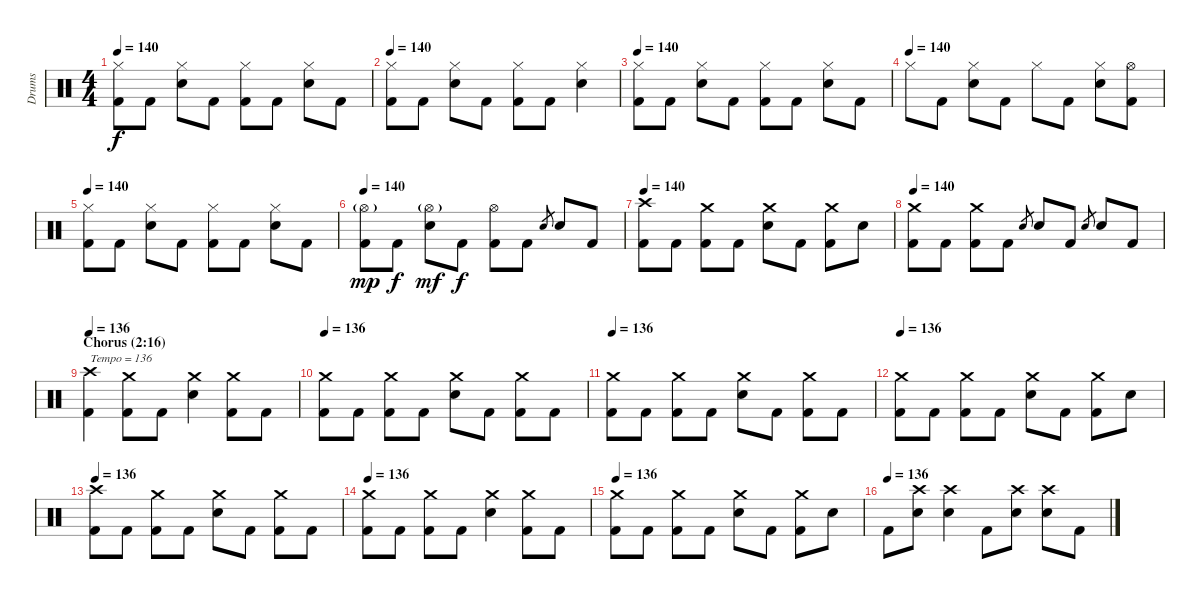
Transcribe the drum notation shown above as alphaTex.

\track ("Drums" "Drums") {instrument percussion}
\staff {score}
\articulation defaults
\ts (4 4)
\tempo 140
\clef neutral
\ks c
("Hi-Hat (closed)" "Kick (hit) 2").8{dy f} "Kick (hit) 2".8 ("Hi-Hat (closed)" "Snare (hit) 2").8 "Kick (hit) 2".8 ("Hi-Hat (closed)" "Kick (hit) 2").8 "Kick (hit) 2".8 ("Hi-Hat (closed)" "Snare (hit) 2").8 "Kick (hit) 2".8 |
\tempo 140
("Hi-Hat (closed)" "Kick (hit) 2").8 "Kick (hit) 2".8 ("Hi-Hat (closed)" "Snare (hit) 2").8 "Kick (hit) 2".8 ("Hi-Hat (closed)" "Kick (hit) 2").8 "Kick (hit) 2".8 ("Hi-Hat (closed)" "Snare (hit) 2").4 |
\tempo 140
("Hi-Hat (closed)" "Kick (hit) 2").8 "Kick (hit) 2".8 ("Hi-Hat (closed)" "Snare (hit) 2").8 "Kick (hit) 2".8 ("Hi-Hat (closed)" "Kick (hit) 2").8 "Kick (hit) 2".8 ("Hi-Hat (closed)" "Snare (hit) 2").8 "Kick (hit) 2".8 |
\tempo (140)
"Hi-Hat (closed)".8 "Kick (hit) 2".8 ("Hi-Hat (closed)" "Snare (hit) 2").8 "Kick (hit) 2".8 "Hi-Hat (closed)".8 "Kick (hit) 2".8 ("Hi-Hat (closed)" "Snare (hit) 2").8 ("Hi-Hat (open)" "Kick (hit) 2").8 |
\tempo 140
("Hi-Hat (closed)" "Kick (hit) 2").8 "Kick (hit) 2".8 ("Hi-Hat (closed)" "Snare (hit) 2").8 "Kick (hit) 2".8 ("Hi-Hat (closed)" "Kick (hit) 2").8 "Kick (hit) 2".8 ("Hi-Hat (closed)" "Snare (hit) 2").8 "Kick (hit) 2".8 |
\tempo 140
("Hi-Hat (open)"{g} "Kick (hit) 2").8{dy mp} "Kick (hit) 2".8{dy f} ("Hi-Hat (open)"{g} "Snare (hit) 2").8{dy mf} "Kick (hit) 2".8{dy f} ("Hi-Hat (open)" "Kick (hit) 2").8 "Kick (hit) 2".8 "Snare (hit) 2".8{gr} "Snare (hit) 2".8 "Kick (hit) 2".8 |
\tempo 140
("Crash high (hit)" "Kick (hit) 2").8 "Kick (hit) 2".8 ("Crash medium (hit)" "Kick (hit) 2").8 "Kick (hit) 2".8 ("Crash medium (hit)" "Snare (hit) 2").8 "Kick (hit) 2".8 ("Crash medium (hit)" "Kick (hit) 2").8 "Snare (hit) 2".8 |
\tempo 140
("Crash medium (hit)" "Kick (hit) 2").8 "Kick (hit) 2".8 ("Crash medium (hit)" "Kick (hit) 2").8 "Kick (hit) 2".8 "Snare (hit) 2".8{gr} "Snare (hit) 2".8 "Kick (hit) 2".8 "Snare (hit) 2".8{gr} "Snare (hit) 2".8 "Kick (hit) 2".8 |
\section ("" "Chorus (2:16)")
\tempo 136
("Crash high (hit)" "Kick (hit) 2").4{txt "Tempo = 136"} ("Crash medium (hit)" "Kick (hit) 2").8 "Kick (hit) 2".8 ("Crash medium (hit)" "Snare (hit) 2").4 ("Crash medium (hit)" "Kick (hit) 2").8 "Kick (hit) 2".8 |
\tempo 136
("Crash medium (hit)" "Kick (hit) 2").8 "Kick (hit) 2".8 ("Crash medium (hit)" "Kick (hit) 2").8 "Kick (hit) 2".8 ("Crash medium (hit)" "Snare (hit) 2").8 "Kick (hit) 2".8 ("Crash medium (hit)" "Kick (hit) 2").8 "Kick (hit) 2".8 |
\tempo 136
("Crash medium (hit)" "Kick (hit) 2").8 "Kick (hit) 2".8 ("Crash medium (hit)" "Kick (hit) 2").8 "Kick (hit) 2".8 ("Crash medium (hit)" "Snare (hit) 2").8 "Kick (hit) 2".8 ("Crash medium (hit)" "Kick (hit) 2").8 "Kick (hit) 2".8 |
\tempo 136
("Crash medium (hit)" "Kick (hit) 2").8 "Kick (hit) 2".8 ("Crash medium (hit)" "Kick (hit) 2").8 "Kick (hit) 2".8 ("Crash medium (hit)" "Snare (hit) 2").8 "Kick (hit) 2".8 ("Crash medium (hit)" "Kick (hit) 2").8 "Snare (hit) 2".8 |
\tempo 136
("Crash high (hit)" "Kick (hit) 2").8 "Kick (hit) 2".8 ("Crash medium (hit)" "Kick (hit) 2").8 "Kick (hit) 2".8 ("Crash medium (hit)" "Snare (hit) 2").8 "Kick (hit) 2".8 ("Crash medium (hit)" "Kick (hit) 2").8 "Kick (hit) 2".8 |
\tempo 136
("Crash medium (hit)" "Kick (hit) 2").8 "Kick (hit) 2".8 ("Crash medium (hit)" "Kick (hit) 2").8 "Kick (hit) 2".8 ("Crash medium (hit)" "Snare (hit) 2").4 ("Crash medium (hit)" "Kick (hit) 2").8 "Kick (hit) 2".8 |
\tempo 136
("Crash medium (hit)" "Kick (hit) 2").8 "Kick (hit) 2".8 ("Crash medium (hit)" "Kick (hit) 2").8 "Kick (hit) 2".8 ("Crash medium (hit)" "Snare (hit) 2").8 "Kick (hit) 2".8 ("Crash medium (hit)" "Kick (hit) 2").8 "Snare (hit) 2".8 |
\tempo (136)
"Kick (hit) 2".8 ("Crash high (hit)" "Snare (hit) 2").8 ("Crash high (hit)" "Snare (hit) 2").4 "Kick (hit) 2".8 ("Crash high (hit)" "Snare (hit) 2").8 ("Crash high (hit)" "Snare (hit) 2").8 "Kick (hit) 2".8
